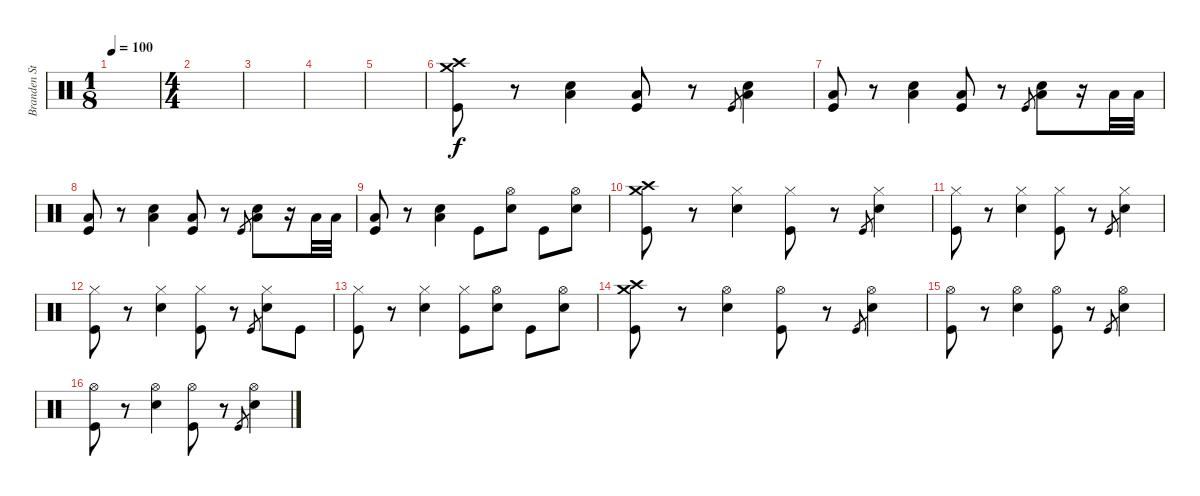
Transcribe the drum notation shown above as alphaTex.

\track ("Branden Steineckert-drums" "Branden St") {instrument percussion}
\staff {score}
\articulation defaults
\ts (1 8)
\tempo 100
\clef neutral
\ks c
|
\ts (4 4)
|
|
|
|
("Crash medium (hit)" "Crash high (hit)" "Kick (hit)").8 r.8 ("Snare (hit) 2" "Low Floor Tom (hit)").4 ("Low Floor Tom (hit)" "Kick (hit)").8 r.8 "Kick (hit)".8{gr} ("Snare (hit) 2" "Low Floor Tom (hit)").4 |
("Low Floor Tom (hit)" "Kick (hit)").8 r.8 ("Snare (hit) 2" "Low Floor Tom (hit)").4 ("Low Floor Tom (hit)" "Kick (hit)").8 r.8 "Kick (hit)".8{gr} ("Snare (hit) 2" "Low Floor Tom (hit)").8 r.16 "Low Floor Tom (hit)".32 "Low Floor Tom (hit)".32 |
("Low Floor Tom (hit)" "Kick (hit)").8 r.8 ("Snare (hit) 2" "Low Floor Tom (hit)").4 ("Low Floor Tom (hit)" "Kick (hit)").8 r.8 "Kick (hit)".8{gr} ("Snare (hit) 2" "Low Floor Tom (hit)").8 r.16 "Low Floor Tom (hit)".32 "Low Floor Tom (hit)".32 |
("Low Floor Tom (hit)" "Kick (hit)").8 r.8 ("Snare (hit) 2" "Low Floor Tom (hit)").4 "Kick (hit)".8 ("Hi-Hat (open)" "Snare (hit) 2").8 "Kick (hit)".8 ("Hi-Hat (open)" "Snare (hit) 2").8 |
("Crash medium (hit)" "Crash high (hit)" "Kick (hit)").8 r.8 ("Hi-Hat (closed)" "Snare (hit) 2").4 ("Hi-Hat (closed)" "Kick (hit)").8 r.8 "Kick (hit)".8{gr} ("Hi-Hat (closed)" "Snare (hit) 2").4 |
("Hi-Hat (closed)" "Kick (hit)").8 r.8 ("Hi-Hat (closed)" "Snare (hit) 2").4 ("Hi-Hat (closed)" "Kick (hit)").8 r.8 "Kick (hit)".8{gr} ("Hi-Hat (closed)" "Snare (hit) 2").4 |
("Hi-Hat (closed)" "Kick (hit)").8 r.8 ("Hi-Hat (closed)" "Snare (hit) 2").4 ("Hi-Hat (closed)" "Kick (hit)").8 r.8 "Kick (hit)".8{gr} ("Hi-Hat (closed)" "Snare (hit) 2").8 "Kick (hit)".8 |
("Hi-Hat (closed)" "Kick (hit)").8 r.8 ("Hi-Hat (closed)" "Snare (hit) 2").4 ("Hi-Hat (closed)" "Kick (hit)").8 ("Hi-Hat (open)" "Snare (hit) 2").8 "Kick (hit)".8 ("Hi-Hat (open)" "Snare (hit) 2").8 |
("Crash medium (hit)" "Crash high (hit)" "Kick (hit)").8 r.8 ("Hi-Hat (open)" "Snare (hit) 2").4 ("Hi-Hat (open)" "Kick (hit)").8 r.8 "Kick (hit)".8{gr} ("Hi-Hat (open)" "Snare (hit) 2").4 |
("Hi-Hat (open)" "Kick (hit)").8 r.8 ("Hi-Hat (open)" "Snare (hit) 2").4 ("Hi-Hat (open)" "Kick (hit)").8 r.8 "Kick (hit)".8{gr} ("Hi-Hat (open)" "Snare (hit) 2").4 |
("Hi-Hat (open)" "Kick (hit)").8 r.8 ("Hi-Hat (open)" "Snare (hit) 2").4 ("Hi-Hat (open)" "Kick (hit)").8 r.8 "Kick (hit)".8{gr} ("Hi-Hat (open)" "Snare (hit) 2").4
